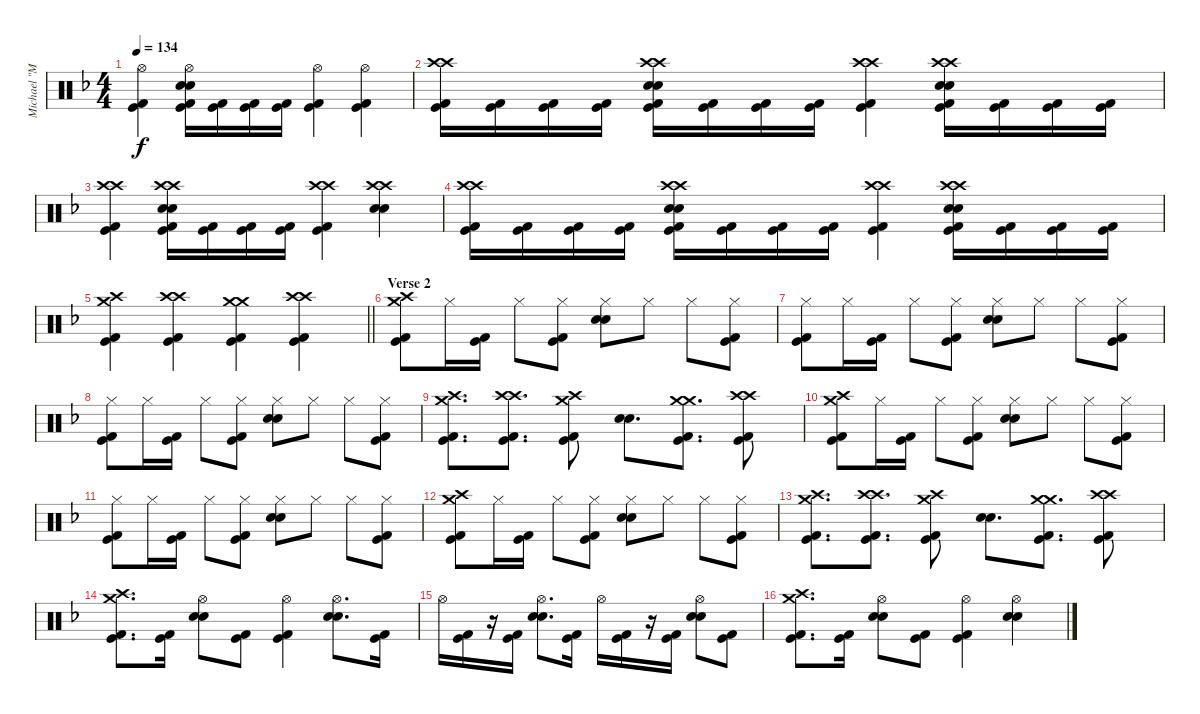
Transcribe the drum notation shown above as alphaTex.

\track ("Michael \"Moose\" Thomas" "Michael \"M") {instrument percussion}
\staff {score}
\articulation defaults
\ts (4 4)
\tempo 134
\clef neutral
\ks f
("Hi-Hat (open)" "Kick (hit)" "Kick (hit) 2").4{dy f} ("Hi-Hat (open)" "Electric Snare (hit)" "Electric Snare (hit)" "Kick (hit)" "Kick (hit) 2").16 ("Kick (hit)" "Kick (hit) 2").16 ("Kick (hit)" "Kick (hit) 2").16 ("Kick (hit)" "Kick (hit) 2").16 ("Hi-Hat (open)" "Kick (hit)" "Kick (hit) 2").4 ("Hi-Hat (open)" "Kick (hit)" "Kick (hit) 2").4 |
("Crash high (hit)" "Crash high (hit)" "Kick (hit)" "Kick (hit) 2").16 ("Kick (hit)" "Kick (hit) 2").16 ("Kick (hit)" "Kick (hit) 2").16 ("Kick (hit)" "Kick (hit) 2").16 ("Crash high (hit)" "Crash high (hit)" "Electric Snare (hit)" "Electric Snare (hit)" "Kick (hit)" "Kick (hit) 2").16 ("Kick (hit)" "Kick (hit) 2").16 ("Kick (hit)" "Kick (hit) 2").16 ("Kick (hit)" "Kick (hit) 2").16 ("Crash high (hit)" "Crash high (hit)" "Kick (hit)" "Kick (hit) 2").4 ("Crash high (hit)" "Crash high (hit)" "Electric Snare (hit)" "Electric Snare (hit)" "Kick (hit)" "Kick (hit) 2").16 ("Kick (hit)" "Kick (hit) 2").16 ("Kick (hit)" "Kick (hit) 2").16 ("Kick (hit)" "Kick (hit) 2").16 |
("Crash high (hit)" "Crash high (hit)" "Kick (hit)" "Kick (hit) 2").4 ("Crash high (hit)" "Crash high (hit)" "Electric Snare (hit)" "Electric Snare (hit)" "Kick (hit)" "Kick (hit) 2").16 ("Kick (hit)" "Kick (hit) 2").16 ("Kick (hit)" "Kick (hit) 2").16 ("Kick (hit)" "Kick (hit) 2").16 ("Crash high (hit)" "Crash high (hit)" "Kick (hit)" "Kick (hit) 2").4 ("Crash high (hit)" "Crash high (hit)" "Electric Snare (hit)" "Electric Snare (hit)").4 |
("Crash high (hit)" "Crash high (hit)" "Kick (hit)" "Kick (hit) 2").16 ("Kick (hit)" "Kick (hit) 2").16 ("Kick (hit)" "Kick (hit) 2").16 ("Kick (hit)" "Kick (hit) 2").16 ("Crash high (hit)" "Crash high (hit)" "Electric Snare (hit)" "Electric Snare (hit)" "Kick (hit)" "Kick (hit) 2").16 ("Kick (hit)" "Kick (hit) 2").16 ("Kick (hit)" "Kick (hit) 2").16 ("Kick (hit)" "Kick (hit) 2").16 ("Crash high (hit)" "Crash high (hit)" "Kick (hit)" "Kick (hit) 2").4 ("Crash high (hit)" "Crash high (hit)" "Electric Snare (hit)" "Electric Snare (hit)" "Kick (hit)" "Kick (hit) 2").16 ("Kick (hit)" "Kick (hit) 2").16 ("Kick (hit)" "Kick (hit) 2").16 ("Kick (hit)" "Kick (hit) 2").16 |
\barLineRight lightlight
("Crash high (hit)" "Crash medium (hit)" "Kick (hit)" "Kick (hit) 2").4 ("Crash high (hit)" "Crash high (hit)" "Kick (hit)" "Kick (hit) 2").4 ("Crash medium (hit)" "Crash medium (hit)" "Kick (hit)" "Kick (hit) 2").4 ("Crash high (hit)" "Crash high (hit)" "Kick (hit)" "Kick (hit) 2").4 |
\section ("" "Verse 2")
("Crash high (hit)" "Crash medium (hit)" "Kick (hit)" "Kick (hit) 2").8 "Hi-Hat (closed)".16 ("Kick (hit)" "Kick (hit) 2").16 "Hi-Hat (closed)".8 ("Hi-Hat (closed)" "Kick (hit)" "Kick (hit) 2").8 ("Hi-Hat (closed)" "Electric Snare (hit)" "Electric Snare (hit)").8 "Hi-Hat (closed)".8 "Hi-Hat (closed)".8 ("Hi-Hat (closed)" "Kick (hit)" "Kick (hit) 2").8 |
("Hi-Hat (closed)" "Kick (hit)" "Kick (hit) 2").8 "Hi-Hat (closed)".16 ("Kick (hit)" "Kick (hit) 2").16 "Hi-Hat (closed)".8 ("Hi-Hat (closed)" "Kick (hit)" "Kick (hit) 2").8 ("Hi-Hat (closed)" "Electric Snare (hit)" "Electric Snare (hit)").8 "Hi-Hat (closed)".8 "Hi-Hat (closed)".8 ("Hi-Hat (closed)" "Kick (hit)" "Kick (hit) 2").8 |
("Hi-Hat (closed)" "Kick (hit)" "Kick (hit) 2").8 "Hi-Hat (closed)".16 ("Kick (hit)" "Kick (hit) 2").16 "Hi-Hat (closed)".8 ("Hi-Hat (closed)" "Kick (hit)" "Kick (hit) 2").8 ("Hi-Hat (closed)" "Electric Snare (hit)" "Electric Snare (hit)").8 "Hi-Hat (closed)".8 "Hi-Hat (closed)".8 ("Hi-Hat (closed)" "Kick (hit)" "Kick (hit) 2").8 |
("Crash high (hit)" "Crash medium (hit)" "Kick (hit)" "Kick (hit) 2").8{d} ("Crash high (hit)" "Crash high (hit)" "Kick (hit)" "Kick (hit) 2").8{d} ("Crash high (hit)" "Crash medium (hit)" "Kick (hit)" "Kick (hit) 2").8 ("Electric Snare (hit)" "Electric Snare (hit)").8{d} ("Crash medium (hit)" "Crash medium (hit)" "Kick (hit)" "Kick (hit) 2").8{d} ("Crash high (hit)" "Crash high (hit)" "Kick (hit)" "Kick (hit) 2").8 |
("Crash high (hit)" "Crash medium (hit)" "Kick (hit)" "Kick (hit) 2").8 "Hi-Hat (closed)".16 ("Kick (hit)" "Kick (hit) 2").16 "Hi-Hat (closed)".8 ("Hi-Hat (closed)" "Kick (hit)" "Kick (hit) 2").8 ("Hi-Hat (closed)" "Electric Snare (hit)" "Electric Snare (hit)").8 "Hi-Hat (closed)".8 "Hi-Hat (closed)".8 ("Hi-Hat (closed)" "Kick (hit)" "Kick (hit) 2").8 |
("Hi-Hat (closed)" "Kick (hit)" "Kick (hit) 2").8 "Hi-Hat (closed)".16 ("Kick (hit)" "Kick (hit) 2").16 "Hi-Hat (closed)".8 ("Hi-Hat (closed)" "Kick (hit)" "Kick (hit) 2").8 ("Hi-Hat (closed)" "Electric Snare (hit)" "Electric Snare (hit)").8 "Hi-Hat (closed)".8 "Hi-Hat (closed)".8 ("Hi-Hat (closed)" "Kick (hit)" "Kick (hit) 2").8 |
("Crash high (hit)" "Crash medium (hit)" "Kick (hit)" "Kick (hit) 2").8 "Hi-Hat (closed)".16 ("Kick (hit)" "Kick (hit) 2").16 "Hi-Hat (closed)".8 ("Hi-Hat (closed)" "Kick (hit)" "Kick (hit) 2").8 ("Hi-Hat (closed)" "Electric Snare (hit)" "Electric Snare (hit)").8 "Hi-Hat (closed)".8 "Hi-Hat (closed)".8 ("Hi-Hat (closed)" "Kick (hit)" "Kick (hit) 2").8 |
("Crash high (hit)" "Crash medium (hit)" "Kick (hit)" "Kick (hit) 2").8{d} ("Crash high (hit)" "Crash high (hit)" "Kick (hit)" "Kick (hit) 2").8{d} ("Crash high (hit)" "Crash medium (hit)" "Kick (hit)" "Kick (hit) 2").8 ("Electric Snare (hit)" "Electric Snare (hit)").8{d} ("Crash medium (hit)" "Crash medium (hit)" "Kick (hit)" "Kick (hit) 2").8{d} ("Crash high (hit)" "Crash high (hit)" "Kick (hit)" "Kick (hit) 2").8 |
("Crash high (hit)" "Crash medium (hit)" "Kick (hit)" "Kick (hit) 2").8{d} ("Kick (hit)" "Kick (hit) 2").16 ("Hi-Hat (open)" "Electric Snare (hit)" "Electric Snare (hit)").8 ("Kick (hit)" "Kick (hit) 2").8 ("Hi-Hat (open)" "Kick (hit)" "Kick (hit) 2").4 ("Hi-Hat (open)" "Electric Snare (hit)" "Electric Snare (hit)").8{d} ("Kick (hit)" "Kick (hit) 2").16 |
"Hi-Hat (open)".16 ("Kick (hit)" "Kick (hit) 2").16 r.16 ("Kick (hit)" "Kick (hit) 2").16 ("Hi-Hat (open)" "Electric Snare (hit)" "Electric Snare (hit)").8{d} ("Kick (hit)" "Kick (hit) 2").16 "Hi-Hat (open)".16 ("Kick (hit)" "Kick (hit) 2").16 r.16 ("Kick (hit)" "Kick (hit) 2").16 ("Hi-Hat (open)" "Electric Snare (hit)" "Electric Snare (hit)").8 ("Kick (hit)" "Kick (hit) 2").8 |
("Crash high (hit)" "Crash medium (hit)" "Kick (hit)" "Kick (hit) 2").8{d} ("Kick (hit)" "Kick (hit) 2").16 ("Hi-Hat (open)" "Electric Snare (hit)" "Electric Snare (hit)").8 ("Kick (hit)" "Kick (hit) 2").8 ("Hi-Hat (open)" "Kick (hit)" "Kick (hit) 2").4 ("Hi-Hat (open)" "Electric Snare (hit)" "Electric Snare (hit)").4
